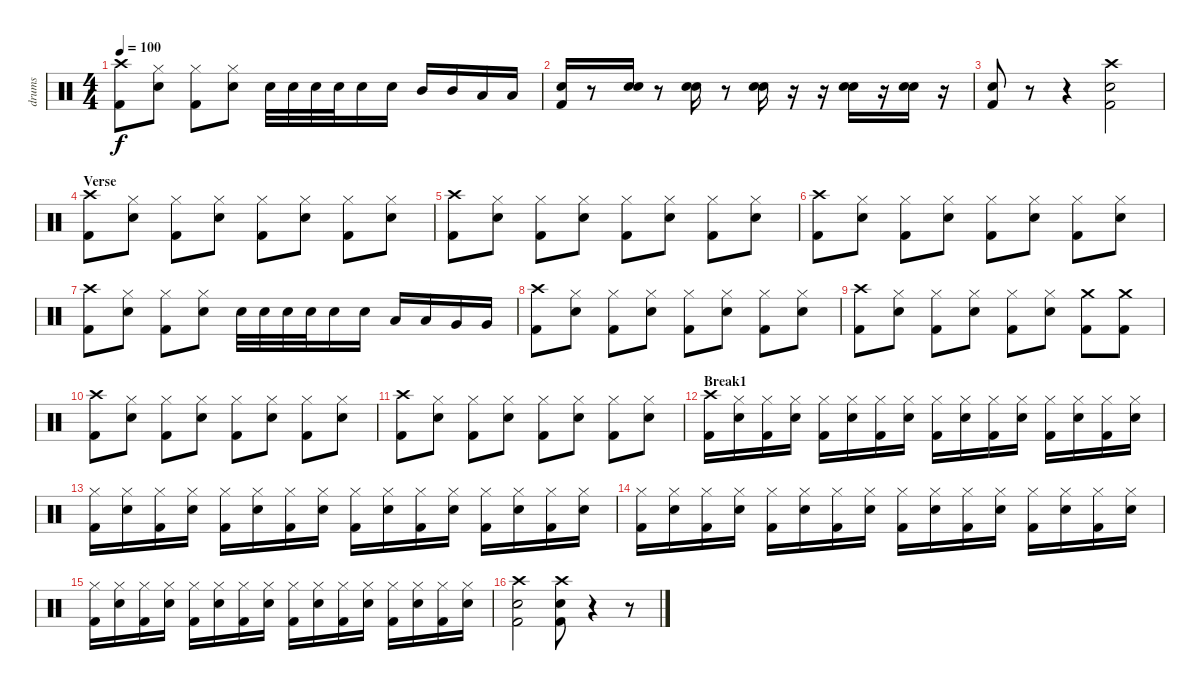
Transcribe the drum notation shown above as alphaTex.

\track ("drums" "drums") {instrument percussion}
\staff {score}
\articulation defaults
\ts (4 4)
\tempo 100
\clef neutral
\ks c
("Crash high (hit)" "Kick (hit) 2").8{dy f} ("Hi-Hat (closed)" "Snare (hit) 2").8 ("Hi-Hat (closed)" "Kick (hit) 2").8 ("Hi-Hat (closed)" "Snare (hit) 2").8 "Snare (hit) 2".32 "Snare (hit) 2".32 "Snare (hit) 2".32 "Snare (hit) 2".32 "Snare (hit) 2".16 "Snare (hit) 2".16 "Mid Tom (hit)".16 "Mid Tom (hit)".16 "Low Tom (hit)".16 "Low Tom (hit)".16 |
("Snare (hit) 2" "Kick (hit) 2").16 r.8 ("Snare (hit) 2" "Snare (hit) 2").16 r.8 ("Snare (hit) 2" "Snare (hit) 2").16 r.8 ("Snare (hit) 2" "Snare (hit) 2").16 r.16 r.16 ("Snare (hit) 2" "Snare (hit) 2").16 r.16 ("Snare (hit) 2" "Snare (hit) 2").16 r.16 |
("Snare (hit) 2" "Kick (hit) 2").8 r.8 r.4 ("Crash high (hit)" "Snare (hit) 2" "Kick (hit) 2").2 |
\section ("" "Verse")
("Crash high (hit)" "Kick (hit) 2").8 ("Hi-Hat (closed)" "Snare (hit) 2").8 ("Hi-Hat (closed)" "Kick (hit) 2").8 ("Hi-Hat (closed)" "Snare (hit) 2").8 ("Hi-Hat (closed)" "Kick (hit) 2").8 ("Hi-Hat (closed)" "Snare (hit) 2").8 ("Hi-Hat (closed)" "Kick (hit) 2").8 ("Hi-Hat (closed)" "Snare (hit) 2").8 |
("Crash high (hit)" "Kick (hit) 2").8 ("Hi-Hat (closed)" "Snare (hit) 2").8 ("Hi-Hat (closed)" "Kick (hit) 2").8 ("Hi-Hat (closed)" "Snare (hit) 2").8 ("Hi-Hat (closed)" "Kick (hit) 2").8 ("Hi-Hat (closed)" "Snare (hit) 2").8 ("Hi-Hat (closed)" "Kick (hit) 2").8 ("Hi-Hat (closed)" "Snare (hit) 2").8 |
("Crash high (hit)" "Kick (hit) 2").8 ("Hi-Hat (closed)" "Snare (hit) 2").8 ("Hi-Hat (closed)" "Kick (hit) 2").8 ("Hi-Hat (closed)" "Snare (hit) 2").8 ("Hi-Hat (closed)" "Kick (hit) 2").8 ("Hi-Hat (closed)" "Snare (hit) 2").8 ("Hi-Hat (closed)" "Kick (hit) 2").8 ("Hi-Hat (closed)" "Snare (hit) 2").8 |
("Crash high (hit)" "Kick (hit) 2").8 ("Hi-Hat (closed)" "Snare (hit) 2").8 ("Hi-Hat (closed)" "Kick (hit) 2").8 ("Hi-Hat (closed)" "Snare (hit) 2").8 "Snare (hit) 2".32 "Snare (hit) 2".32 "Snare (hit) 2".32 "Snare (hit) 2".32 "Snare (hit) 2".16 "Snare (hit) 2".16 "Low Tom (hit)".16 "Low Tom (hit)".16 "Very Low Tom (hit)".16 "Very Low Tom (hit)".16 |
("Crash high (hit)" "Kick (hit) 2").8 ("Hi-Hat (closed)" "Snare (hit) 2").8 ("Hi-Hat (closed)" "Kick (hit) 2").8 ("Hi-Hat (closed)" "Snare (hit) 2").8 ("Hi-Hat (closed)" "Kick (hit) 2").8 ("Hi-Hat (closed)" "Snare (hit) 2").8 ("Hi-Hat (closed)" "Kick (hit) 2").8 ("Hi-Hat (closed)" "Snare (hit) 2").8 |
("Crash high (hit)" "Kick (hit) 2").8 ("Hi-Hat (closed)" "Snare (hit) 2").8 ("Hi-Hat (closed)" "Kick (hit) 2").8 ("Hi-Hat (closed)" "Snare (hit) 2").8 ("Hi-Hat (closed)" "Kick (hit) 2").8 ("Hi-Hat (closed)" "Snare (hit) 2").8 ("Crash medium (hit)" "Kick (hit) 2").8 ("Crash medium (hit)" "Kick (hit) 2").8 |
("Crash high (hit)" "Kick (hit) 2").8 ("Hi-Hat (closed)" "Snare (hit) 2").8 ("Hi-Hat (closed)" "Kick (hit) 2").8 ("Hi-Hat (closed)" "Snare (hit) 2").8 ("Hi-Hat (closed)" "Kick (hit) 2").8 ("Hi-Hat (closed)" "Snare (hit) 2").8 ("Hi-Hat (closed)" "Kick (hit) 2").8 ("Hi-Hat (closed)" "Snare (hit) 2").8 |
("Crash high (hit)" "Kick (hit) 2").8 ("Hi-Hat (closed)" "Snare (hit) 2").8 ("Hi-Hat (closed)" "Kick (hit) 2").8 ("Hi-Hat (closed)" "Snare (hit) 2").8 ("Hi-Hat (closed)" "Kick (hit) 2").8 ("Hi-Hat (closed)" "Snare (hit) 2").8 ("Hi-Hat (closed)" "Kick (hit) 2").8 ("Hi-Hat (closed)" "Snare (hit) 2").8 |
\section ("" "Break1")
("Crash high (hit)" "Kick (hit) 2").16 ("Hi-Hat (closed)" "Snare (hit) 2").16 ("Hi-Hat (closed)" "Kick (hit) 2").16 ("Hi-Hat (closed)" "Snare (hit) 2").16 ("Hi-Hat (closed)" "Kick (hit) 2").16 ("Hi-Hat (closed)" "Snare (hit) 2").16 ("Hi-Hat (closed)" "Kick (hit) 2").16 ("Hi-Hat (closed)" "Snare (hit) 2").16 ("Hi-Hat (closed)" "Kick (hit) 2").16 ("Hi-Hat (closed)" "Snare (hit) 2").16 ("Hi-Hat (closed)" "Kick (hit) 2").16 ("Hi-Hat (closed)" "Snare (hit) 2").16 ("Hi-Hat (closed)" "Kick (hit) 2").16 ("Hi-Hat (closed)" "Snare (hit) 2").16 ("Hi-Hat (closed)" "Kick (hit) 2").16 ("Hi-Hat (closed)" "Snare (hit) 2").16 |
("Hi-Hat (closed)" "Kick (hit) 2").16 ("Hi-Hat (closed)" "Snare (hit) 2").16 ("Hi-Hat (closed)" "Kick (hit) 2").16 ("Hi-Hat (closed)" "Snare (hit) 2").16 ("Hi-Hat (closed)" "Kick (hit) 2").16 ("Hi-Hat (closed)" "Snare (hit) 2").16 ("Hi-Hat (closed)" "Kick (hit) 2").16 ("Hi-Hat (closed)" "Snare (hit) 2").16 ("Hi-Hat (closed)" "Kick (hit) 2").16 ("Hi-Hat (closed)" "Snare (hit) 2").16 ("Hi-Hat (closed)" "Kick (hit) 2").16 ("Hi-Hat (closed)" "Snare (hit) 2").16 ("Hi-Hat (closed)" "Kick (hit) 2").16 ("Hi-Hat (closed)" "Snare (hit) 2").16 ("Hi-Hat (closed)" "Kick (hit) 2").16 ("Hi-Hat (closed)" "Snare (hit) 2").16 |
("Hi-Hat (closed)" "Kick (hit) 2").16 ("Hi-Hat (closed)" "Snare (hit) 2").16 ("Hi-Hat (closed)" "Kick (hit) 2").16 ("Hi-Hat (closed)" "Snare (hit) 2").16 ("Hi-Hat (closed)" "Kick (hit) 2").16 ("Hi-Hat (closed)" "Snare (hit) 2").16 ("Hi-Hat (closed)" "Kick (hit) 2").16 ("Hi-Hat (closed)" "Snare (hit) 2").16 ("Hi-Hat (closed)" "Kick (hit) 2").16 ("Hi-Hat (closed)" "Snare (hit) 2").16 ("Hi-Hat (closed)" "Kick (hit) 2").16 ("Hi-Hat (closed)" "Snare (hit) 2").16 ("Hi-Hat (closed)" "Kick (hit) 2").16 ("Hi-Hat (closed)" "Snare (hit) 2").16 ("Hi-Hat (closed)" "Kick (hit) 2").16 ("Hi-Hat (closed)" "Snare (hit) 2").16 |
("Hi-Hat (closed)" "Kick (hit) 2").16 ("Hi-Hat (closed)" "Snare (hit) 2").16 ("Hi-Hat (closed)" "Kick (hit) 2").16 ("Hi-Hat (closed)" "Snare (hit) 2").16 ("Hi-Hat (closed)" "Kick (hit) 2").16 ("Hi-Hat (closed)" "Snare (hit) 2").16 ("Hi-Hat (closed)" "Kick (hit) 2").16 ("Hi-Hat (closed)" "Snare (hit) 2").16 ("Hi-Hat (closed)" "Kick (hit) 2").16 ("Hi-Hat (closed)" "Snare (hit) 2").16 ("Hi-Hat (closed)" "Kick (hit) 2").16 ("Hi-Hat (closed)" "Snare (hit) 2").16 ("Hi-Hat (closed)" "Kick (hit) 2").16 ("Hi-Hat (closed)" "Snare (hit) 2").16 ("Hi-Hat (closed)" "Kick (hit) 2").16 ("Hi-Hat (closed)" "Snare (hit) 2").16 |
("Crash high (hit)" "Snare (hit) 2" "Kick (hit) 2").2 ("Crash high (hit)" "Snare (hit) 2" "Kick (hit) 2").8 r.4 r.8
